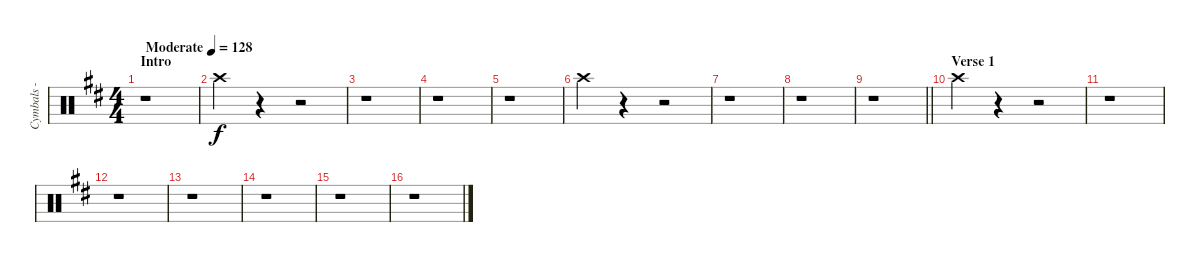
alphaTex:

\track ("Cymbals - crash" "Cymbals - ") {instrument percussion}
\staff {score}
\articulation defaults
\ts (4 4)
\section ("" "Intro")
\tempo (128 "Moderate")
\clef neutral
\ks bminor
r.1{dy f} |
"Crash high (hit)".4{volume 4 balance 10} r.4 r.2 |
r.1 |
r.1 |
r.1 |
"Crash high (hit)".4 r.4 r.2 |
r.1 |
r.1 |
\barLineRight lightlight
r.1 |
\section ("" "Verse 1")
"Crash high (hit)".4 r.4 r.2 |
r.1 |
r.1 |
r.1 |
r.1 |
r.1 |
r.1
